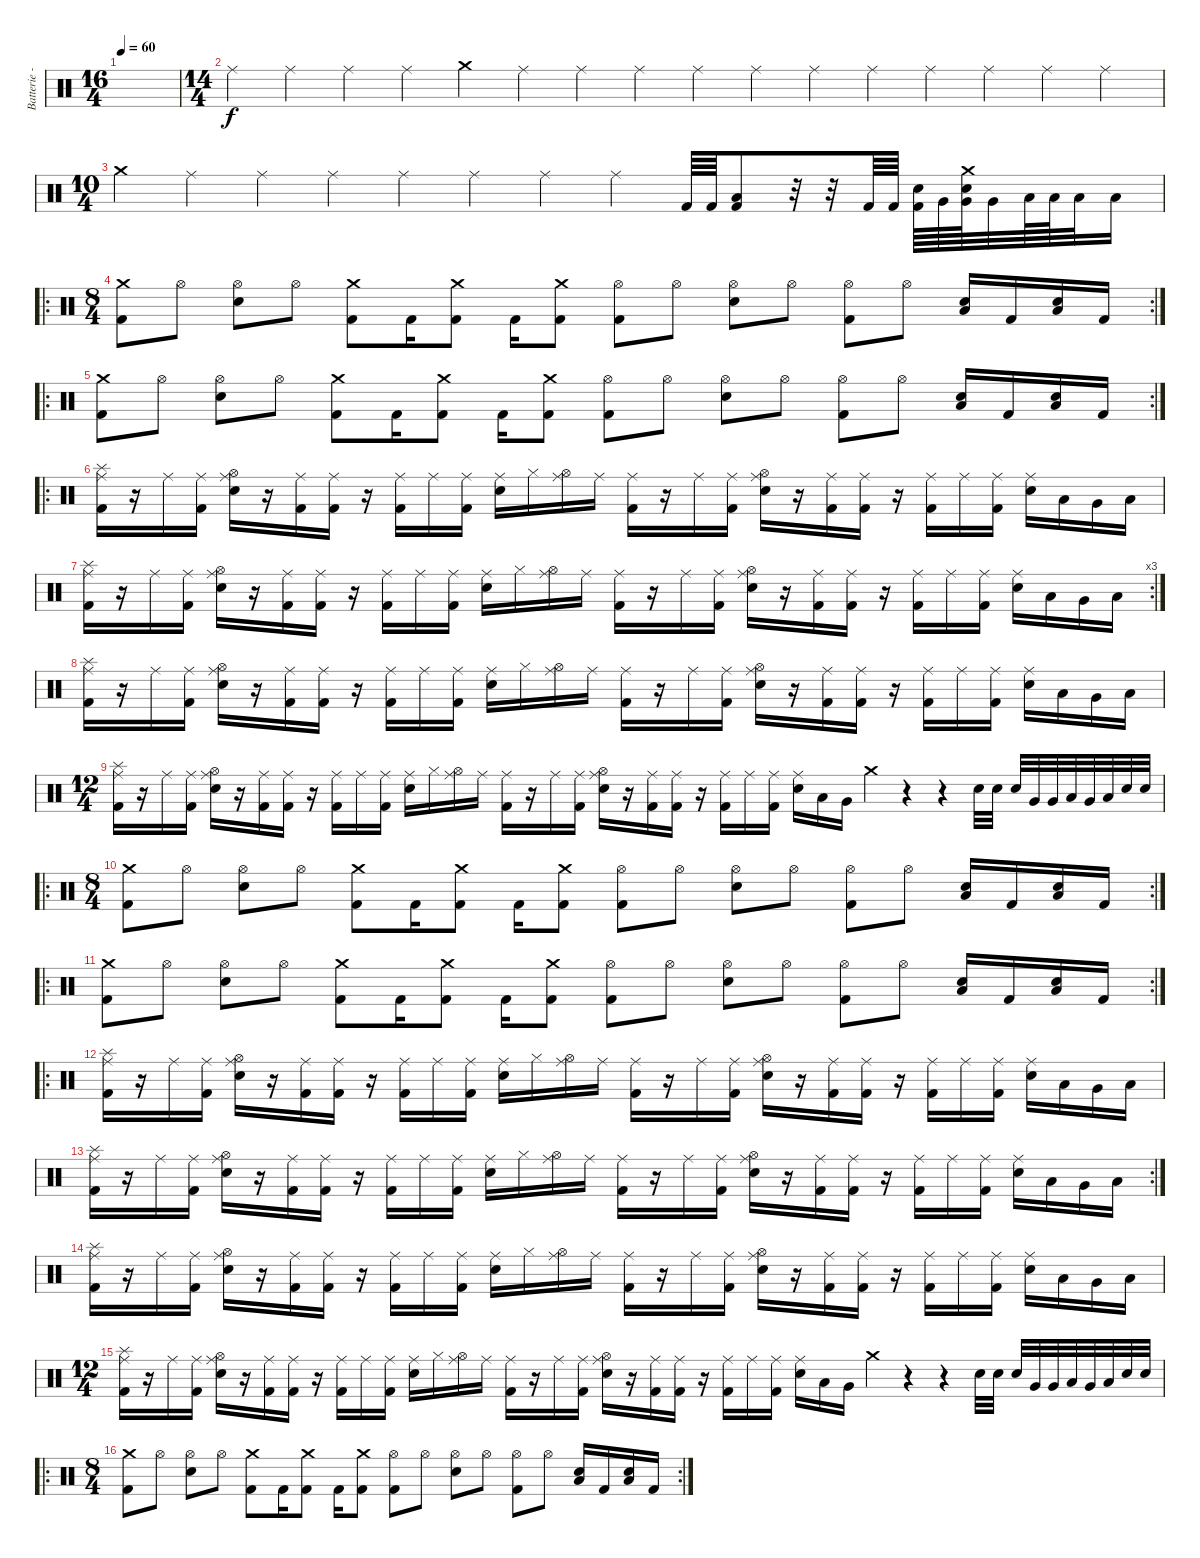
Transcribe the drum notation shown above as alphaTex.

\track ("Batterie - " "Batterie -") {instrument percussion}
\staff {score}
\articulation defaults
\ts (16 4)
\tempo 60
\clef neutral
\ks c
|
\ts (14 4)
"Ride (middle)".4 "Ride (middle)".4 "Ride (middle)".4 "Ride (middle)".4 "Crash medium (hit)".4 "Ride (middle)".4 "Ride (middle)".4 "Ride (middle)".4 "Ride (middle)".4 "Ride (middle)".4 "Ride (middle)".4 "Ride (middle)".4 "Ride (middle)".4 "Ride (middle)".4 "Ride (middle)".4 "Ride (middle)".4 |
\ts (10 4)
"Crash medium (hit)".4 "Ride (middle)".4 "Ride (middle)".4 "Ride (middle)".4 "Ride (middle)".4 "Ride (middle)".4 "Ride (middle)".4 "Ride (middle)".4 "Kick (hit) 2".64 "Kick (hit) 2".64 ("Low Floor Tom (hit)" "Kick (hit) 2").8 r.32 r.32 "Kick (hit) 2".64 "Kick (hit) 2".64 ("Electric Snare (hit)" "Kick (hit) 2").64 "Very Low Tom (hit)".64 ("Crash medium (hit)" "Electric Snare (hit)" "Very Low Tom (hit)").64 "Very Low Tom (hit)".32 "Low Tom (hit)".64 "Low Tom (hit)".64 "Low Floor Tom (hit)".32 "Low Floor Tom (hit)".16 |
\ro
\rc 2
\ts (8 4)
("Kick (hit) 2" "Crash medium (hit)").8 "Hi-Hat (open)".8 ("Electric Snare (hit)" "Hi-Hat (open)").8 "Hi-Hat (open)".8 ("Kick (hit) 2" "Crash medium (hit)").8 "Kick (hit) 2".16 ("Kick (hit) 2" "Crash medium (hit)").8 "Kick (hit) 2".16 ("Kick (hit) 2" "Crash medium (hit)").8 ("Kick (hit) 2" "Hi-Hat (open)").8 "Hi-Hat (open)".8 ("Electric Snare (hit)" "Hi-Hat (open)").8 "Hi-Hat (open)".8 ("Kick (hit) 2" "Hi-Hat (open)").8 "Hi-Hat (open)".8 ("Low Floor Tom (hit)" "Electric Snare (hit)").16 "Kick (hit) 2".16 ("Low Floor Tom (hit)" "Electric Snare (hit)").16 "Kick (hit) 2".16 |
\ro
\rc 2
("Kick (hit) 2" "Crash medium (hit)").8 "Hi-Hat (open)".8 ("Electric Snare (hit)" "Hi-Hat (open)").8 "Hi-Hat (open)".8 ("Kick (hit) 2" "Crash medium (hit)").8 "Kick (hit) 2".16 ("Kick (hit) 2" "Crash medium (hit)").8 "Kick (hit) 2".16 ("Kick (hit) 2" "Crash medium (hit)").8 ("Kick (hit) 2" "Hi-Hat (open)").8 "Hi-Hat (open)".8 ("Electric Snare (hit)" "Hi-Hat (open)").8 "Hi-Hat (open)".8 ("Kick (hit) 2" "Hi-Hat (open)").8 "Hi-Hat (open)".8 ("Low Floor Tom (hit)" "Electric Snare (hit)").16 "Kick (hit) 2".16 ("Low Floor Tom (hit)" "Electric Snare (hit)").16 "Kick (hit) 2".16 |
\ro
("Splash (hit)" "Kick (hit) 2" "Ride (middle)").16 r.16 "Ride (middle)".16 ("Kick (hit) 2" "Ride (middle)").16 ("Hi-Hat (open)" "Electric Snare (hit)" "Ride (middle)").16 r.16 ("Kick (hit) 2" "Ride (middle)").16 ("Ride (middle)" "Kick (hit) 2").16 r.16 ("Kick (hit) 2" "Ride (middle)").16 "Ride (middle)".16 ("Kick (hit) 2" "Ride (middle)").16 ("Electric Snare (hit)" "Ride (middle)").16 "Hi-Hat (closed)".16 ("Hi-Hat (open)" "Ride (middle)").16 "Ride (middle)".16 ("Kick (hit) 2" "Ride (middle)").16 r.16 "Ride (middle)".16 ("Kick (hit) 2" "Ride (middle)").16 ("Hi-Hat (open)" "Electric Snare (hit)" "Ride (middle)").16 r.16 ("Kick (hit) 2" "Ride (middle)").16 ("Kick (hit) 2" "Ride (middle)").16 r.16 ("Kick (hit) 2" "Ride (middle)").16 "Ride (middle)".16 ("Kick (hit) 2" "Ride (middle)").16 ("Electric Snare (hit)" "Ride (middle)").16 "Low Tom (hit)".16 "Very Low Tom (hit)".16 "Low Floor Tom (hit)".16 |
\rc 3
("Splash (hit)" "Kick (hit) 2" "Ride (middle)").16 r.16 "Ride (middle)".16 ("Kick (hit) 2" "Ride (middle)").16 ("Hi-Hat (open)" "Electric Snare (hit)" "Ride (middle)").16 r.16 ("Kick (hit) 2" "Ride (middle)").16 ("Ride (middle)" "Kick (hit) 2").16 r.16 ("Kick (hit) 2" "Ride (middle)").16 "Ride (middle)".16 ("Kick (hit) 2" "Ride (middle)").16 ("Electric Snare (hit)" "Ride (middle)").16 "Hi-Hat (closed)".16 ("Hi-Hat (open)" "Ride (middle)").16 "Ride (middle)".16 ("Kick (hit) 2" "Ride (middle)").16 r.16 "Ride (middle)".16 ("Kick (hit) 2" "Ride (middle)").16 ("Hi-Hat (open)" "Electric Snare (hit)" "Ride (middle)").16 r.16 ("Kick (hit) 2" "Ride (middle)").16 ("Kick (hit) 2" "Ride (middle)").16 r.16 ("Kick (hit) 2" "Ride (middle)").16 "Ride (middle)".16 ("Kick (hit) 2" "Ride (middle)").16 ("Electric Snare (hit)" "Ride (middle)").16 "Low Tom (hit)".16 "Very Low Tom (hit)".16 "Low Floor Tom (hit)".16 |
("Splash (hit)" "Kick (hit) 2" "Ride (middle)").16 r.16 "Ride (middle)".16 ("Kick (hit) 2" "Ride (middle)").16 ("Hi-Hat (open)" "Electric Snare (hit)" "Ride (middle)").16 r.16 ("Kick (hit) 2" "Ride (middle)").16 ("Ride (middle)" "Kick (hit) 2").16 r.16 ("Kick (hit) 2" "Ride (middle)").16 "Ride (middle)".16 ("Kick (hit) 2" "Ride (middle)").16 ("Electric Snare (hit)" "Ride (middle)").16 "Hi-Hat (closed)".16 ("Hi-Hat (open)" "Ride (middle)").16 "Ride (middle)".16 ("Kick (hit) 2" "Ride (middle)").16 r.16 "Ride (middle)".16 ("Kick (hit) 2" "Ride (middle)").16 ("Hi-Hat (open)" "Electric Snare (hit)" "Ride (middle)").16 r.16 ("Kick (hit) 2" "Ride (middle)").16 ("Kick (hit) 2" "Ride (middle)").16 r.16 ("Kick (hit) 2" "Ride (middle)").16 "Ride (middle)".16 ("Kick (hit) 2" "Ride (middle)").16 ("Electric Snare (hit)" "Ride (middle)").16 "Low Tom (hit)".16 "Very Low Tom (hit)".16 "Low Floor Tom (hit)".16 |
\ts (12 4)
("Splash (hit)" "Kick (hit) 2" "Ride (middle)").16 r.16 "Ride (middle)".16 ("Kick (hit) 2" "Ride (middle)").16 ("Hi-Hat (open)" "Electric Snare (hit)" "Ride (middle)").16 r.16 ("Kick (hit) 2" "Ride (middle)").16 ("Ride (middle)" "Kick (hit) 2").16 r.16 ("Kick (hit) 2" "Ride (middle)").16 "Ride (middle)".16 ("Kick (hit) 2" "Ride (middle)").16 ("Electric Snare (hit)" "Ride (middle)").16 "Hi-Hat (closed)".16 ("Hi-Hat (open)" "Ride (middle)").16 "Ride (middle)".16 ("Kick (hit) 2" "Ride (middle)").16 r.16 "Ride (middle)".16 ("Kick (hit) 2" "Ride (middle)").16 ("Hi-Hat (open)" "Electric Snare (hit)" "Ride (middle)").16 r.16 ("Kick (hit) 2" "Ride (middle)").16 ("Kick (hit) 2" "Ride (middle)").16 r.16 ("Kick (hit) 2" "Ride (middle)").16 "Ride (middle)".16 ("Kick (hit) 2" "Ride (middle)").16 ("Electric Snare (hit)" "Ride (middle)").16 "Low Tom (hit)".16 "Very Low Tom (hit)".16 "Crash medium (hit)".4 r.4 r.4 "Electric Snare (hit)".32 "Electric Snare (hit)".32 "Electric Snare (hit)".32 "Very Low Tom (hit)".32 "Very Low Tom (hit)".32 "Low Floor Tom (hit)".32 "Very Low Tom (hit)".32 "Low Tom (hit)".32 "Electric Snare (hit)".32 "Electric Snare (hit)".32 |
\ro
\rc 2
\ts (8 4)
("Kick (hit) 2" "Crash medium (hit)").8 "Hi-Hat (open)".8 ("Electric Snare (hit)" "Hi-Hat (open)").8 "Hi-Hat (open)".8 ("Kick (hit) 2" "Crash medium (hit)").8 "Kick (hit) 2".16 ("Kick (hit) 2" "Crash medium (hit)").8 "Kick (hit) 2".16 ("Kick (hit) 2" "Crash medium (hit)").8 ("Kick (hit) 2" "Hi-Hat (open)").8 "Hi-Hat (open)".8 ("Electric Snare (hit)" "Hi-Hat (open)").8 "Hi-Hat (open)".8 ("Kick (hit) 2" "Hi-Hat (open)").8 "Hi-Hat (open)".8 ("Low Floor Tom (hit)" "Electric Snare (hit)").16 "Kick (hit) 2".16 ("Low Floor Tom (hit)" "Electric Snare (hit)").16 "Kick (hit) 2".16 |
\ro
\rc 2
("Kick (hit) 2" "Crash medium (hit)").8 "Hi-Hat (open)".8 ("Electric Snare (hit)" "Hi-Hat (open)").8 "Hi-Hat (open)".8 ("Kick (hit) 2" "Crash medium (hit)").8 "Kick (hit) 2".16 ("Kick (hit) 2" "Crash medium (hit)").8 "Kick (hit) 2".16 ("Kick (hit) 2" "Crash medium (hit)").8 ("Kick (hit) 2" "Hi-Hat (open)").8 "Hi-Hat (open)".8 ("Electric Snare (hit)" "Hi-Hat (open)").8 "Hi-Hat (open)".8 ("Kick (hit) 2" "Hi-Hat (open)").8 "Hi-Hat (open)".8 ("Low Floor Tom (hit)" "Electric Snare (hit)").16 "Kick (hit) 2".16 ("Low Floor Tom (hit)" "Electric Snare (hit)").16 "Kick (hit) 2".16 |
\ro
("Splash (hit)" "Kick (hit) 2" "Ride (middle)").16 r.16 "Ride (middle)".16 ("Kick (hit) 2" "Ride (middle)").16 ("Hi-Hat (open)" "Electric Snare (hit)" "Ride (middle)").16 r.16 ("Kick (hit) 2" "Ride (middle)").16 ("Ride (middle)" "Kick (hit) 2").16 r.16 ("Kick (hit) 2" "Ride (middle)").16 "Ride (middle)".16 ("Kick (hit) 2" "Ride (middle)").16 ("Electric Snare (hit)" "Ride (middle)").16 "Hi-Hat (closed)".16 ("Hi-Hat (open)" "Ride (middle)").16 "Ride (middle)".16 ("Kick (hit) 2" "Ride (middle)").16 r.16 "Ride (middle)".16 ("Kick (hit) 2" "Ride (middle)").16 ("Hi-Hat (open)" "Electric Snare (hit)" "Ride (middle)").16 r.16 ("Kick (hit) 2" "Ride (middle)").16 ("Kick (hit) 2" "Ride (middle)").16 r.16 ("Kick (hit) 2" "Ride (middle)").16 "Ride (middle)".16 ("Kick (hit) 2" "Ride (middle)").16 ("Electric Snare (hit)" "Ride (middle)").16 "Low Tom (hit)".16 "Very Low Tom (hit)".16 "Low Floor Tom (hit)".16 |
\rc 2
("Splash (hit)" "Kick (hit) 2" "Ride (middle)").16 r.16 "Ride (middle)".16 ("Kick (hit) 2" "Ride (middle)").16 ("Hi-Hat (open)" "Electric Snare (hit)" "Ride (middle)").16 r.16 ("Kick (hit) 2" "Ride (middle)").16 ("Ride (middle)" "Kick (hit) 2").16 r.16 ("Kick (hit) 2" "Ride (middle)").16 "Ride (middle)".16 ("Kick (hit) 2" "Ride (middle)").16 ("Electric Snare (hit)" "Ride (middle)").16 "Hi-Hat (closed)".16 ("Hi-Hat (open)" "Ride (middle)").16 "Ride (middle)".16 ("Kick (hit) 2" "Ride (middle)").16 r.16 "Ride (middle)".16 ("Kick (hit) 2" "Ride (middle)").16 ("Hi-Hat (open)" "Electric Snare (hit)" "Ride (middle)").16 r.16 ("Kick (hit) 2" "Ride (middle)").16 ("Kick (hit) 2" "Ride (middle)").16 r.16 ("Kick (hit) 2" "Ride (middle)").16 "Ride (middle)".16 ("Kick (hit) 2" "Ride (middle)").16 ("Electric Snare (hit)" "Ride (middle)").16 "Low Tom (hit)".16 "Very Low Tom (hit)".16 "Low Floor Tom (hit)".16 |
("Splash (hit)" "Kick (hit) 2" "Ride (middle)").16 r.16 "Ride (middle)".16 ("Kick (hit) 2" "Ride (middle)").16 ("Hi-Hat (open)" "Electric Snare (hit)" "Ride (middle)").16 r.16 ("Kick (hit) 2" "Ride (middle)").16 ("Ride (middle)" "Kick (hit) 2").16 r.16 ("Kick (hit) 2" "Ride (middle)").16 "Ride (middle)".16 ("Kick (hit) 2" "Ride (middle)").16 ("Electric Snare (hit)" "Ride (middle)").16 "Hi-Hat (closed)".16 ("Hi-Hat (open)" "Ride (middle)").16 "Ride (middle)".16 ("Kick (hit) 2" "Ride (middle)").16 r.16 "Ride (middle)".16 ("Kick (hit) 2" "Ride (middle)").16 ("Hi-Hat (open)" "Electric Snare (hit)" "Ride (middle)").16 r.16 ("Kick (hit) 2" "Ride (middle)").16 ("Kick (hit) 2" "Ride (middle)").16 r.16 ("Kick (hit) 2" "Ride (middle)").16 "Ride (middle)".16 ("Kick (hit) 2" "Ride (middle)").16 ("Electric Snare (hit)" "Ride (middle)").16 "Low Tom (hit)".16 "Very Low Tom (hit)".16 "Low Floor Tom (hit)".16 |
\ts (12 4)
("Splash (hit)" "Kick (hit) 2" "Ride (middle)").16 r.16 "Ride (middle)".16 ("Kick (hit) 2" "Ride (middle)").16 ("Hi-Hat (open)" "Electric Snare (hit)" "Ride (middle)").16 r.16 ("Kick (hit) 2" "Ride (middle)").16 ("Ride (middle)" "Kick (hit) 2").16 r.16 ("Kick (hit) 2" "Ride (middle)").16 "Ride (middle)".16 ("Kick (hit) 2" "Ride (middle)").16 ("Electric Snare (hit)" "Ride (middle)").16 "Hi-Hat (closed)".16 ("Hi-Hat (open)" "Ride (middle)").16 "Ride (middle)".16 ("Kick (hit) 2" "Ride (middle)").16 r.16 "Ride (middle)".16 ("Kick (hit) 2" "Ride (middle)").16 ("Hi-Hat (open)" "Electric Snare (hit)" "Ride (middle)").16 r.16 ("Kick (hit) 2" "Ride (middle)").16 ("Kick (hit) 2" "Ride (middle)").16 r.16 ("Kick (hit) 2" "Ride (middle)").16 "Ride (middle)".16 ("Kick (hit) 2" "Ride (middle)").16 ("Electric Snare (hit)" "Ride (middle)").16 "Low Tom (hit)".16 "Very Low Tom (hit)".16 "Crash medium (hit)".4 r.4 r.4 "Electric Snare (hit)".32 "Electric Snare (hit)".32 "Electric Snare (hit)".32 "Very Low Tom (hit)".32 "Very Low Tom (hit)".32 "Low Floor Tom (hit)".32 "Very Low Tom (hit)".32 "Low Tom (hit)".32 "Electric Snare (hit)".32 "Electric Snare (hit)".32 |
\ro
\rc 2
\ts (8 4)
("Kick (hit) 2" "Crash medium (hit)").8 "Hi-Hat (open)".8 ("Electric Snare (hit)" "Hi-Hat (open)").8 "Hi-Hat (open)".8 ("Kick (hit) 2" "Crash medium (hit)").8 "Kick (hit) 2".16 ("Kick (hit) 2" "Crash medium (hit)").8 "Kick (hit) 2".16 ("Kick (hit) 2" "Crash medium (hit)").8 ("Kick (hit) 2" "Hi-Hat (open)").8 "Hi-Hat (open)".8 ("Electric Snare (hit)" "Hi-Hat (open)").8 "Hi-Hat (open)".8 ("Kick (hit) 2" "Hi-Hat (open)").8 "Hi-Hat (open)".8 ("Low Floor Tom (hit)" "Electric Snare (hit)").16 "Kick (hit) 2".16 ("Low Floor Tom (hit)" "Electric Snare (hit)").16 "Kick (hit) 2".16
